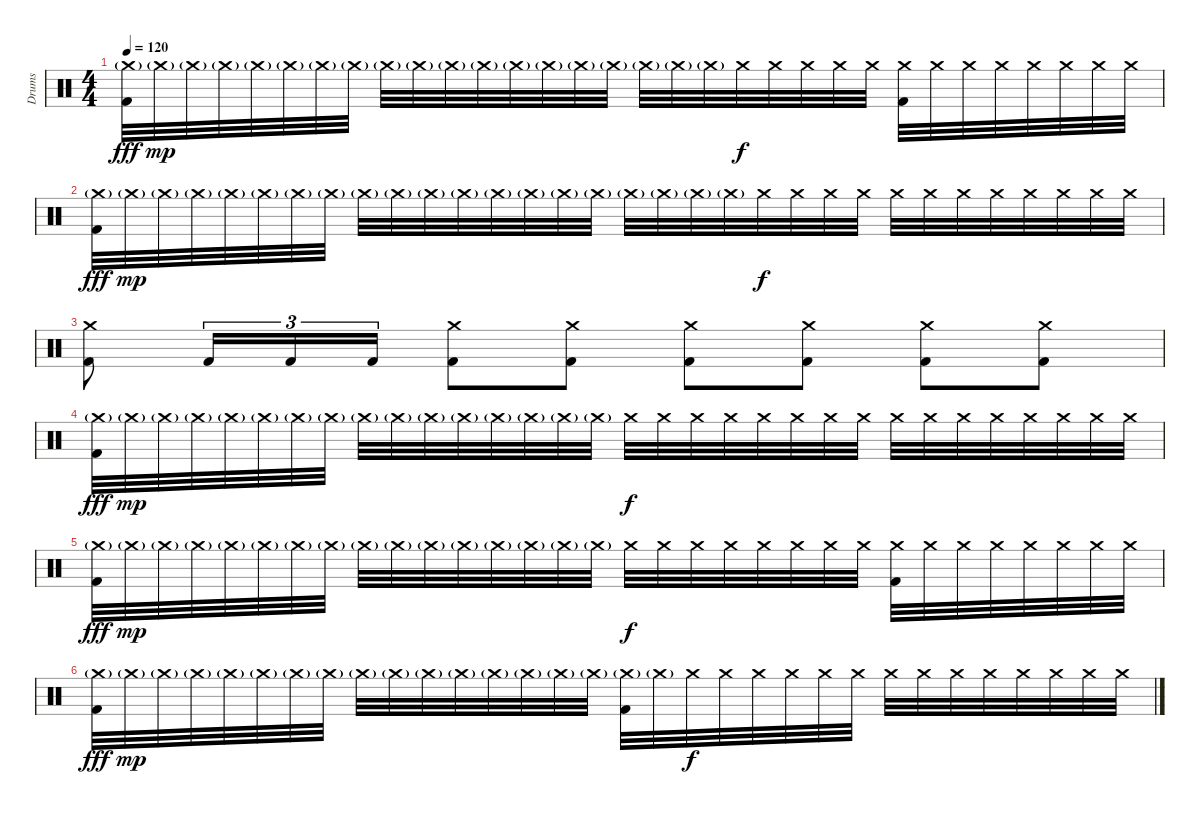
\track ("Drums" "Drums") {instrument percussion}
\staff {score}
\articulation defaults
\ts (4 4)
\tempo 120
\clef neutral
\ks c
("Crash medium (hit)"{g} "Kick (hit) 2").32{dy fff} "Crash medium (hit)"{g}.32{dy mp} "Crash medium (hit)"{g}.32 "Crash medium (hit)"{g}.32 "Crash medium (hit)"{g}.32 "Crash medium (hit)"{g}.32 "Crash medium (hit)"{g}.32 "Crash medium (hit)"{g}.32 "Crash medium (hit)"{g}.32 "Crash medium (hit)"{g}.32 "Crash medium (hit)"{g}.32 "Crash medium (hit)"{g}.32 "Crash medium (hit)"{g}.32 "Crash medium (hit)"{g}.32 "Crash medium (hit)"{g}.32 "Crash medium (hit)"{g}.32 "Crash medium (hit)"{g}.32 "Crash medium (hit)"{g}.32 "Crash medium (hit)"{g}.32 "Crash medium (hit)".32{dy f} "Crash medium (hit)".32 "Crash medium (hit)".32 "Crash medium (hit)".32 "Crash medium (hit)".32 ("Crash medium (hit)" "Kick (hit) 2").32 "Crash medium (hit)".32 "Crash medium (hit)".32 "Crash medium (hit)".32 "Crash medium (hit)".32 "Crash medium (hit)".32 "Crash medium (hit)".32 "Crash medium (hit)".32 |
("Crash medium (hit)"{g} "Kick (hit) 2").32{dy fff} "Crash medium (hit)"{g}.32{dy mp} "Crash medium (hit)"{g}.32 "Crash medium (hit)"{g}.32 "Crash medium (hit)"{g}.32 "Crash medium (hit)"{g}.32 "Crash medium (hit)"{g}.32 "Crash medium (hit)"{g}.32 "Crash medium (hit)"{g}.32 "Crash medium (hit)"{g}.32 "Crash medium (hit)"{g}.32 "Crash medium (hit)"{g}.32 "Crash medium (hit)"{g}.32 "Crash medium (hit)"{g}.32 "Crash medium (hit)"{g}.32 "Crash medium (hit)"{g}.32 "Crash medium (hit)"{g}.32 "Crash medium (hit)"{g}.32 "Crash medium (hit)"{g}.32 "Crash medium (hit)"{g}.32 "Crash medium (hit)".32{dy f} "Crash medium (hit)".32 "Crash medium (hit)".32 "Crash medium (hit)".32 "Crash medium (hit)".32 "Crash medium (hit)".32 "Crash medium (hit)".32 "Crash medium (hit)".32 "Crash medium (hit)".32 "Crash medium (hit)".32 "Crash medium (hit)".32 "Crash medium (hit)".32 |
("Crash medium (hit)" "Kick (hit) 2").8 "Kick (hit) 2".16{tu (3 2)} "Kick (hit) 2".16{tu (3 2)} "Kick (hit) 2".16{tu (3 2)} ("Crash medium (hit)" "Kick (hit) 2").8 ("Crash medium (hit)" "Kick (hit) 2").8 ("Crash medium (hit)" "Kick (hit) 2").8 ("Crash medium (hit)" "Kick (hit) 2").8 ("Crash medium (hit)" "Kick (hit) 2").8 ("Crash medium (hit)" "Kick (hit) 2").8 |
("Crash medium (hit)"{g} "Kick (hit) 2").32{dy fff} "Crash medium (hit)"{g}.32{dy mp} "Crash medium (hit)"{g}.32 "Crash medium (hit)"{g}.32 "Crash medium (hit)"{g}.32 "Crash medium (hit)"{g}.32 "Crash medium (hit)"{g}.32 "Crash medium (hit)"{g}.32 "Crash medium (hit)"{g}.32 "Crash medium (hit)"{g}.32 "Crash medium (hit)"{g}.32 "Crash medium (hit)"{g}.32 "Crash medium (hit)"{g}.32 "Crash medium (hit)"{g}.32 "Crash medium (hit)"{g}.32 "Crash medium (hit)"{g}.32 "Crash medium (hit)".32{dy f} "Crash medium (hit)".32 "Crash medium (hit)".32 "Crash medium (hit)".32 "Crash medium (hit)".32 "Crash medium (hit)".32 "Crash medium (hit)".32 "Crash medium (hit)".32 "Crash medium (hit)".32 "Crash medium (hit)".32 "Crash medium (hit)".32 "Crash medium (hit)".32 "Crash medium (hit)".32 "Crash medium (hit)".32 "Crash medium (hit)".32 "Crash medium (hit)".32 |
("Crash medium (hit)"{g} "Kick (hit) 2").32{dy fff} "Crash medium (hit)"{g}.32{dy mp} "Crash medium (hit)"{g}.32 "Crash medium (hit)"{g}.32 "Crash medium (hit)"{g}.32 "Crash medium (hit)"{g}.32 "Crash medium (hit)"{g}.32 "Crash medium (hit)"{g}.32 "Crash medium (hit)"{g}.32 "Crash medium (hit)"{g}.32 "Crash medium (hit)"{g}.32 "Crash medium (hit)"{g}.32 "Crash medium (hit)"{g}.32 "Crash medium (hit)"{g}.32 "Crash medium (hit)"{g}.32 "Crash medium (hit)"{g}.32 "Crash medium (hit)".32{dy f} "Crash medium (hit)".32 "Crash medium (hit)".32 "Crash medium (hit)".32 "Crash medium (hit)".32 "Crash medium (hit)".32 "Crash medium (hit)".32 "Crash medium (hit)".32 ("Crash medium (hit)" "Kick (hit) 2").32 "Crash medium (hit)".32 "Crash medium (hit)".32 "Crash medium (hit)".32 "Crash medium (hit)".32 "Crash medium (hit)".32 "Crash medium (hit)".32 "Crash medium (hit)".32 |
("Crash medium (hit)"{g} "Kick (hit) 2").32{dy fff} "Crash medium (hit)"{g}.32{dy mp} "Crash medium (hit)"{g}.32 "Crash medium (hit)"{g}.32 "Crash medium (hit)"{g}.32 "Crash medium (hit)"{g}.32 "Crash medium (hit)"{g}.32 "Crash medium (hit)"{g}.32 "Crash medium (hit)"{g}.32 "Crash medium (hit)"{g}.32 "Crash medium (hit)"{g}.32 "Crash medium (hit)"{g}.32 "Crash medium (hit)"{g}.32 "Crash medium (hit)"{g}.32 "Crash medium (hit)"{g}.32 "Crash medium (hit)"{g}.32 ("Crash medium (hit)"{g} "Kick (hit) 2").32 "Crash medium (hit)"{g}.32 "Crash medium (hit)".32{dy f} "Crash medium (hit)".32 "Crash medium (hit)".32 "Crash medium (hit)".32 "Crash medium (hit)".32 "Crash medium (hit)".32 "Crash medium (hit)".32 "Crash medium (hit)".32 "Crash medium (hit)".32 "Crash medium (hit)".32 "Crash medium (hit)".32 "Crash medium (hit)".32 "Crash medium (hit)".32 "Crash medium (hit)".32
